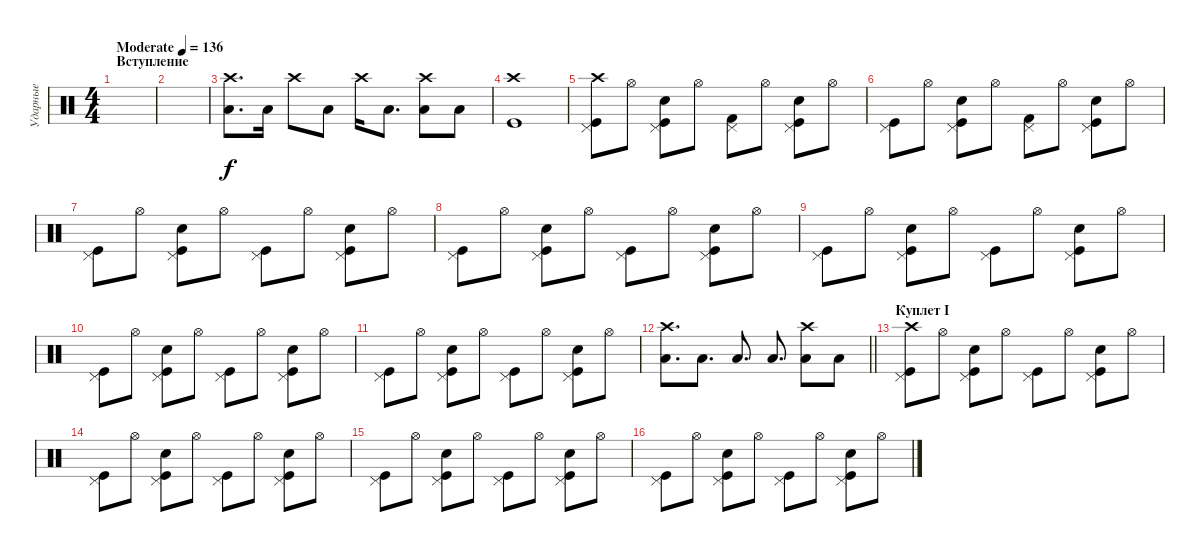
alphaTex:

\track ("Ударные" "Ударные") {instrument percussion}
\staff {score}
\articulation defaults
\ts (4 4)
\section ("" "Вступление")
\tempo (136 "Moderate")
\clef neutral
\ks c
|
|
("Low Tom (hit)" "Crash high (hit)").8{d} "Low Tom (hit)".16 "Crash high (hit)".8 "Low Tom (hit)".8 "Crash high (hit)".16 "Low Tom (hit)".8{d} ("Low Tom (hit)" "Crash high (hit)").8 "Low Tom (hit)".8 |
("Kick (hit)" "Crash high (hit)").1 |
("Kick (hit)" "Crash high (hit)" "Pedal Hi-Hat (hit)").8 "Hi-Hat (open)".8 ("Kick (hit)" "Hand Clap (hit)" "Pedal Hi-Hat (hit)").8 "Hi-Hat (open)".8 ("Kick (hit) 2" "Pedal Hi-Hat (hit)").8 "Hi-Hat (open)".8 ("Kick (hit)" "Hand Clap (hit)" "Pedal Hi-Hat (hit)").8 "Hi-Hat (open)".8 |
("Kick (hit)" "Pedal Hi-Hat (hit)").8 "Hi-Hat (open)".8 ("Kick (hit)" "Hand Clap (hit)" "Pedal Hi-Hat (hit)").8 "Hi-Hat (open)".8 ("Kick (hit) 2" "Pedal Hi-Hat (hit)").8 "Hi-Hat (open)".8 ("Kick (hit)" "Hand Clap (hit)" "Pedal Hi-Hat (hit)").8 "Hi-Hat (open)".8 |
("Kick (hit)" "Pedal Hi-Hat (hit)").8 "Hi-Hat (open)".8 ("Kick (hit)" "Hand Clap (hit)" "Pedal Hi-Hat (hit)").8 "Hi-Hat (open)".8 ("Kick (hit)" "Pedal Hi-Hat (hit)").8 "Hi-Hat (open)".8 ("Kick (hit)" "Hand Clap (hit)" "Pedal Hi-Hat (hit)").8 "Hi-Hat (open)".8 |
("Kick (hit)" "Pedal Hi-Hat (hit)").8 "Hi-Hat (open)".8 ("Kick (hit)" "Hand Clap (hit)" "Pedal Hi-Hat (hit)").8 "Hi-Hat (open)".8 ("Kick (hit)" "Pedal Hi-Hat (hit)").8 "Hi-Hat (open)".8 ("Kick (hit)" "Hand Clap (hit)" "Pedal Hi-Hat (hit)").8 "Hi-Hat (open)".8 |
("Kick (hit)" "Pedal Hi-Hat (hit)").8 "Hi-Hat (open)".8 ("Kick (hit)" "Hand Clap (hit)" "Pedal Hi-Hat (hit)").8 "Hi-Hat (open)".8 ("Kick (hit)" "Pedal Hi-Hat (hit)").8 "Hi-Hat (open)".8 ("Kick (hit)" "Hand Clap (hit)" "Pedal Hi-Hat (hit)").8 "Hi-Hat (open)".8 |
("Kick (hit)" "Pedal Hi-Hat (hit)").8 "Hi-Hat (open)".8 ("Kick (hit)" "Hand Clap (hit)" "Pedal Hi-Hat (hit)").8 "Hi-Hat (open)".8 ("Kick (hit)" "Pedal Hi-Hat (hit)").8 "Hi-Hat (open)".8 ("Kick (hit)" "Hand Clap (hit)" "Pedal Hi-Hat (hit)").8 "Hi-Hat (open)".8 |
("Kick (hit)" "Pedal Hi-Hat (hit)").8 "Hi-Hat (open)".8 ("Kick (hit)" "Hand Clap (hit)" "Pedal Hi-Hat (hit)").8 "Hi-Hat (open)".8 ("Kick (hit)" "Pedal Hi-Hat (hit)").8 "Hi-Hat (open)".8 ("Kick (hit)" "Hand Clap (hit)" "Pedal Hi-Hat (hit)").8 "Hi-Hat (open)".8 |
\barLineRight lightlight
("Low Tom (hit)" "Crash high (hit)").8{d} "Low Tom (hit)".8{d} "Low Tom (hit)".8{d} "Low Tom (hit)".8{d} ("Low Tom (hit)" "Crash high (hit)").8 "Low Tom (hit)".8 |
\section ("" "Куплет I")
("Kick (hit)" "Crash high (hit)" "Pedal Hi-Hat (hit)").8 "Hi-Hat (open)".8 ("Kick (hit)" "Hand Clap (hit)" "Pedal Hi-Hat (hit)").8 "Hi-Hat (open)".8 ("Kick (hit)" "Pedal Hi-Hat (hit)").8 "Hi-Hat (open)".8 ("Kick (hit)" "Hand Clap (hit)" "Pedal Hi-Hat (hit)").8 "Hi-Hat (open)".8 |
("Kick (hit)" "Pedal Hi-Hat (hit)").8 "Hi-Hat (open)".8 ("Kick (hit)" "Hand Clap (hit)" "Pedal Hi-Hat (hit)").8 "Hi-Hat (open)".8 ("Kick (hit)" "Pedal Hi-Hat (hit)").8 "Hi-Hat (open)".8 ("Kick (hit)" "Hand Clap (hit)" "Pedal Hi-Hat (hit)").8 "Hi-Hat (open)".8 |
("Kick (hit)" "Pedal Hi-Hat (hit)").8 "Hi-Hat (open)".8 ("Kick (hit)" "Hand Clap (hit)" "Pedal Hi-Hat (hit)").8 "Hi-Hat (open)".8 ("Kick (hit)" "Pedal Hi-Hat (hit)").8 "Hi-Hat (open)".8 ("Kick (hit)" "Hand Clap (hit)" "Pedal Hi-Hat (hit)").8 "Hi-Hat (open)".8 |
("Kick (hit)" "Pedal Hi-Hat (hit)").8 "Hi-Hat (open)".8 ("Kick (hit)" "Hand Clap (hit)" "Pedal Hi-Hat (hit)").8 "Hi-Hat (open)".8 ("Kick (hit)" "Pedal Hi-Hat (hit)").8 "Hi-Hat (open)".8 ("Kick (hit)" "Hand Clap (hit)" "Pedal Hi-Hat (hit)").8 "Hi-Hat (open)".8
